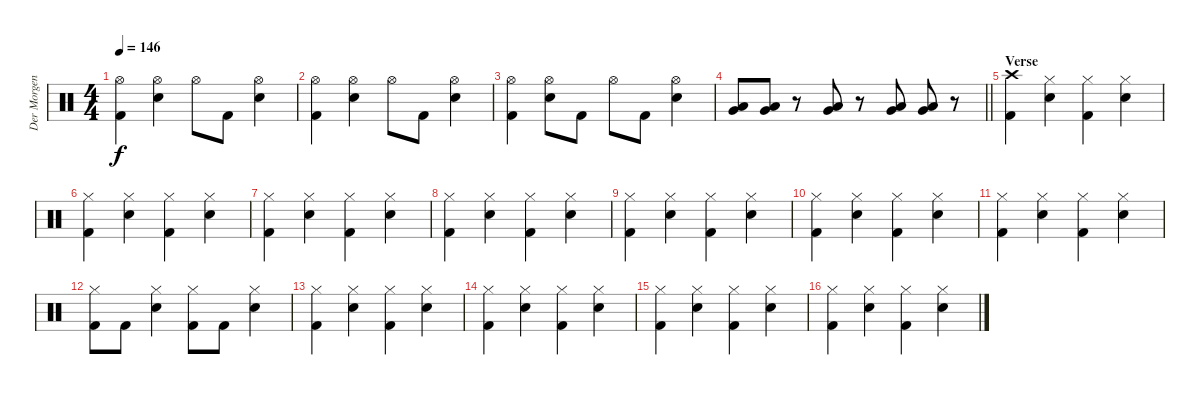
\track ("Der Morgenstern" "Der Morgen") {instrument percussion}
\staff {score}
\articulation defaults
\ts (4 4)
\tempo 146
\clef neutral
\ks c
("Hi-Hat (open)" "Kick (hit) 2").4{dy f} ("Hi-Hat (open)" "Electric Snare (hit)").4 "Hi-Hat (open)".8 "Kick (hit) 2".8 ("Hi-Hat (open)" "Electric Snare (hit)").4 |
("Hi-Hat (open)" "Kick (hit) 2").4 ("Hi-Hat (open)" "Electric Snare (hit)").4 "Hi-Hat (open)".8 "Kick (hit) 2".8 ("Hi-Hat (open)" "Electric Snare (hit)").4 |
("Hi-Hat (open)" "Kick (hit) 2").4 ("Hi-Hat (open)" "Electric Snare (hit)").8 "Kick (hit) 2".8 "Hi-Hat (open)".8 "Kick (hit) 2".8 ("Hi-Hat (open)" "Electric Snare (hit)").4 |
\barLineRight lightlight
("Very Low Tom (hit)" "Low Floor Tom (hit)").8 ("Very Low Tom (hit)" "Low Floor Tom (hit)").8 r.8 ("Very Low Tom (hit)" "Low Floor Tom (hit)").8 r.8 ("Very Low Tom (hit)" "Low Floor Tom (hit)").8 ("Very Low Tom (hit)" "Low Floor Tom (hit)").8 r.8 |
\section ("" "Verse")
("Crash high (hit)" "Kick (hit) 2").4 ("Hi-Hat (closed)" "Electric Snare (hit)").4 ("Hi-Hat (closed)" "Kick (hit) 2").4 ("Hi-Hat (closed)" "Electric Snare (hit)").4 |
("Hi-Hat (closed)" "Kick (hit) 2").4 ("Hi-Hat (closed)" "Electric Snare (hit)").4 ("Hi-Hat (closed)" "Kick (hit) 2").4 ("Hi-Hat (closed)" "Electric Snare (hit)").4 |
("Hi-Hat (closed)" "Kick (hit) 2").4 ("Hi-Hat (closed)" "Electric Snare (hit)").4 ("Hi-Hat (closed)" "Kick (hit) 2").4 ("Hi-Hat (closed)" "Electric Snare (hit)").4 |
("Hi-Hat (closed)" "Kick (hit) 2").4 ("Hi-Hat (closed)" "Electric Snare (hit)").4 ("Hi-Hat (closed)" "Kick (hit) 2").4 ("Hi-Hat (closed)" "Electric Snare (hit)").4 |
("Hi-Hat (closed)" "Kick (hit) 2").4 ("Hi-Hat (closed)" "Electric Snare (hit)").4 ("Hi-Hat (closed)" "Kick (hit) 2").4 ("Hi-Hat (closed)" "Electric Snare (hit)").4 |
("Hi-Hat (closed)" "Kick (hit) 2").4 ("Hi-Hat (closed)" "Electric Snare (hit)").4 ("Hi-Hat (closed)" "Kick (hit) 2").4 ("Hi-Hat (closed)" "Electric Snare (hit)").4 |
("Hi-Hat (closed)" "Kick (hit) 2").4 ("Hi-Hat (closed)" "Electric Snare (hit)").4 ("Hi-Hat (closed)" "Kick (hit) 2").4 ("Hi-Hat (closed)" "Electric Snare (hit)").4 |
("Hi-Hat (closed)" "Kick (hit) 2").8 "Kick (hit) 2".8 ("Hi-Hat (closed)" "Electric Snare (hit)").4 ("Hi-Hat (closed)" "Kick (hit) 2").8 "Kick (hit) 2".8 ("Hi-Hat (closed)" "Electric Snare (hit)").4 |
("Hi-Hat (closed)" "Kick (hit) 2").4 ("Hi-Hat (closed)" "Electric Snare (hit)").4 ("Hi-Hat (closed)" "Kick (hit) 2").4 ("Hi-Hat (closed)" "Electric Snare (hit)").4 |
("Hi-Hat (closed)" "Kick (hit) 2").4 ("Hi-Hat (closed)" "Electric Snare (hit)").4 ("Hi-Hat (closed)" "Kick (hit) 2").4 ("Hi-Hat (closed)" "Electric Snare (hit)").4 |
("Hi-Hat (closed)" "Kick (hit) 2").4 ("Hi-Hat (closed)" "Electric Snare (hit)").4 ("Hi-Hat (closed)" "Kick (hit) 2").4 ("Hi-Hat (closed)" "Electric Snare (hit)").4 |
("Hi-Hat (closed)" "Kick (hit) 2").4 ("Hi-Hat (closed)" "Electric Snare (hit)").4 ("Hi-Hat (closed)" "Kick (hit) 2").4 ("Hi-Hat (closed)" "Electric Snare (hit)").4
